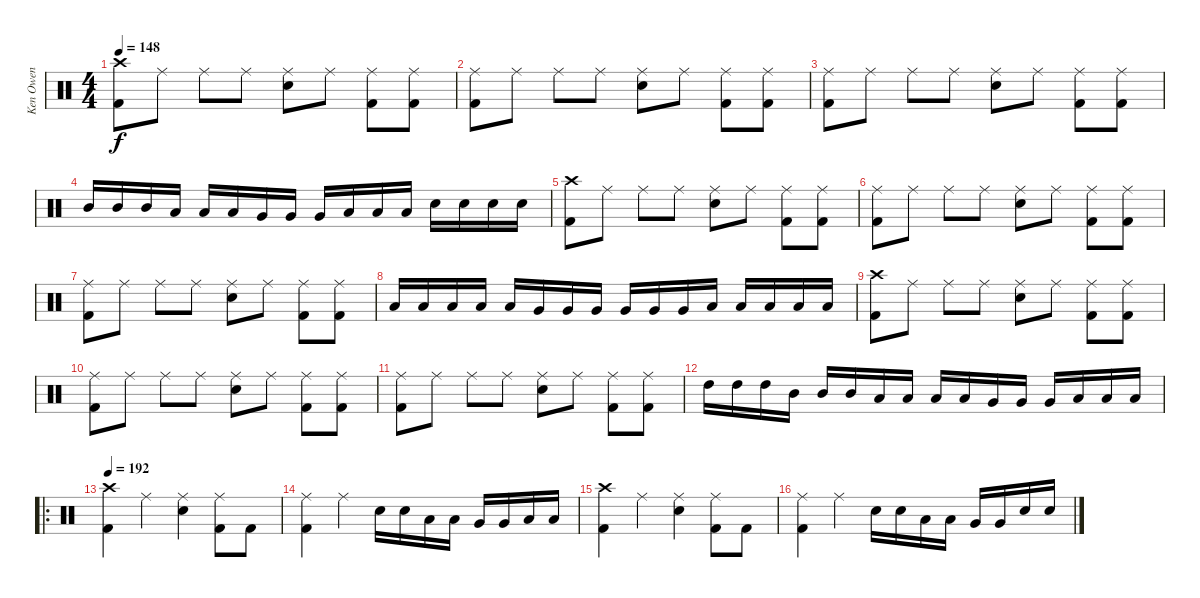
\track ("Ken Owen" "Ken Owen") {instrument percussion}
\staff {score}
\articulation defaults
\ts (4 4)
\tempo 148
\clef neutral
\ks c
("Crash high (hit)" "Kick (hit) 2").8{dy f} "Ride (middle)".8 "Ride (middle)".8 "Ride (middle)".8 ("Ride (middle)" "Snare (hit) 2").8 "Ride (middle)".8 ("Ride (middle)" "Kick (hit) 2").8 ("Ride (middle)" "Kick (hit) 2").8 |
("Ride (middle)" "Kick (hit) 2").8 "Ride (middle)".8 "Ride (middle)".8 "Ride (middle)".8 ("Ride (middle)" "Snare (hit) 2").8 "Ride (middle)".8 ("Ride (middle)" "Kick (hit) 2").8 ("Ride (middle)" "Kick (hit) 2").8 |
("Ride (middle)" "Kick (hit) 2").8 "Ride (middle)".8 "Ride (middle)".8 "Ride (middle)".8 ("Ride (middle)" "Snare (hit) 2").8 "Ride (middle)".8 ("Ride (middle)" "Kick (hit) 2").8 ("Ride (middle)" "Kick (hit) 2").8 |
"Mid Tom (hit)".16 "Mid Tom (hit)".16 "Mid Tom (hit)".16 "Low Tom (hit)".16 "Low Tom (hit)".16 "Low Tom (hit)".16 "Very Low Tom (hit)".16 "Very Low Tom (hit)".16 "Very Low Tom (hit)".16 "Low Floor Tom (hit)".16 "Low Floor Tom (hit)".16 "Low Floor Tom (hit)".16 "Snare (hit) 2".16 "Snare (hit) 2".16 "Snare (hit) 2".16 "Snare (hit) 2".16 |
("Crash high (hit)" "Kick (hit) 2").8 "Ride (middle)".8 "Ride (middle)".8 "Ride (middle)".8 ("Ride (middle)" "Snare (hit) 2").8 "Ride (middle)".8 ("Ride (middle)" "Kick (hit) 2").8 ("Ride (middle)" "Kick (hit) 2").8 |
("Ride (middle)" "Kick (hit) 2").8 "Ride (middle)".8 "Ride (middle)".8 "Ride (middle)".8 ("Ride (middle)" "Snare (hit) 2").8 "Ride (middle)".8 ("Ride (middle)" "Kick (hit) 2").8 ("Ride (middle)" "Kick (hit) 2").8 |
("Ride (middle)" "Kick (hit) 2").8 "Ride (middle)".8 "Ride (middle)".8 "Ride (middle)".8 ("Ride (middle)" "Snare (hit) 2").8 "Ride (middle)".8 ("Ride (middle)" "Kick (hit) 2").8 ("Ride (middle)" "Kick (hit) 2").8 |
"Low Tom (hit)".16 "Low Tom (hit)".16 "Low Tom (hit)".16 "Low Tom (hit)".16 "Low Tom (hit)".16 "Very Low Tom (hit)".16 "Very Low Tom (hit)".16 "Very Low Tom (hit)".16 "Very Low Tom (hit)".16 "Very Low Tom (hit)".16 "Very Low Tom (hit)".16 "Low Floor Tom (hit)".16 "Low Floor Tom (hit)".16 "Low Floor Tom (hit)".16 "Low Floor Tom (hit)".16 "Low Floor Tom (hit)".16 |
("Crash high (hit)" "Kick (hit) 2").8 "Ride (middle)".8 "Ride (middle)".8 "Ride (middle)".8 ("Ride (middle)" "Snare (hit) 2").8 "Ride (middle)".8 ("Ride (middle)" "Kick (hit) 2").8 ("Ride (middle)" "Kick (hit) 2").8 |
("Ride (middle)" "Kick (hit) 2").8 "Ride (middle)".8 "Ride (middle)".8 "Ride (middle)".8 ("Ride (middle)" "Snare (hit) 2").8 "Ride (middle)".8 ("Ride (middle)" "Kick (hit) 2").8 ("Ride (middle)" "Kick (hit) 2").8 |
("Ride (middle)" "Kick (hit) 2").8 "Ride (middle)".8 "Ride (middle)".8 "Ride (middle)".8 ("Ride (middle)" "Snare (hit) 2").8 "Ride (middle)".8 ("Ride (middle)" "Kick (hit) 2").8 ("Ride (middle)" "Kick (hit) 2").8 |
"High Tom (hit)".16 "High Tom (hit)".16 "High Tom (hit)".16 "Mid Tom (hit)".16 "Mid Tom (hit)".16 "Mid Tom (hit)".16 "Low Tom (hit)".16 "Low Tom (hit)".16 "Low Tom (hit)".16 "Low Tom (hit)".16 "Very Low Tom (hit)".16 "Very Low Tom (hit)".16 "Very Low Tom (hit)".16 "Low Floor Tom (hit)".16 "Low Floor Tom (hit)".16 "Low Floor Tom (hit)".16 |
\ro
\tempo 192
("Crash high (hit)" "Kick (hit) 2").4 "Ride (middle)".4 ("Ride (middle)" "Snare (hit) 2").4 ("Ride (middle)" "Kick (hit) 2").8 "Kick (hit) 2".8 |
("Ride (middle)" "Kick (hit) 2").4 "Ride (middle)".4 "Snare (hit) 2".16 "Snare (hit) 2".16 "Low Tom (hit)".16 "Low Tom (hit)".16 "Very Low Tom (hit)".16 "Very Low Tom (hit)".16 "Low Floor Tom (hit)".16 "Low Floor Tom (hit)".16 |
("Crash high (hit)" "Kick (hit) 2").4 "Ride (middle)".4 ("Ride (middle)" "Snare (hit) 2").4 ("Ride (middle)" "Kick (hit) 2").8 "Kick (hit) 2".8 |
("Ride (middle)" "Kick (hit) 2").4 "Ride (middle)".4 "Snare (hit) 2".16 "Snare (hit) 2".16 "Low Tom (hit)".16 "Low Tom (hit)".16 "Very Low Tom (hit)".16 "Very Low Tom (hit)".16 "Snare (hit) 2".16 "Snare (hit) 2".16
